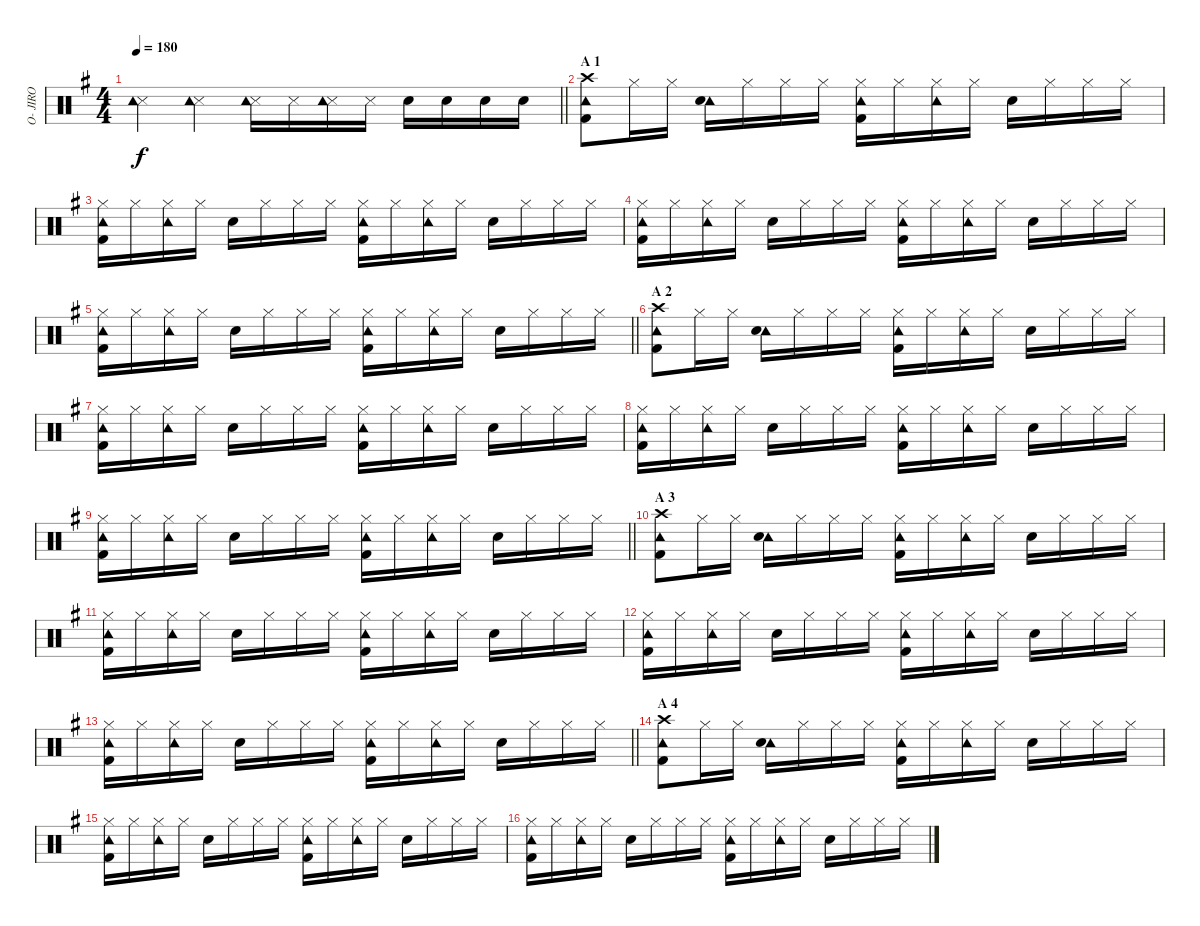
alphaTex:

\track ("O- JIRO" "O- JIRO") {instrument percussion}
\staff {score}
\articulation defaults
\ts (4 4)
\tempo 180
\clef neutral
\barLineRight lightlight
\ks g
("Snare (side stick) 3" "Tambourine (hit)").4{dy f} ("Snare (side stick) 3" "Tambourine (hit)").4 ("Snare (side stick) 3" "Tambourine (hit)").16 "Snare (side stick) 3".16 ("Snare (side stick) 3" "Tambourine (hit)").16 "Snare (side stick) 3".16 "Snare (hit) 2".16 "Snare (hit) 2".16 "Snare (hit) 2".16 "Snare (hit) 2".16 |
\section ("" "A 1")
("Crash high (hit)" "Kick (hit) 2" "Tambourine (hit)").8 "Hi-Hat (closed)".16 "Hi-Hat (closed)".16 ("Tambourine (hit)" "Snare (hit) 2").16 "Hi-Hat (closed)".16 "Hi-Hat (closed)".16 "Hi-Hat (closed)".16 ("Tambourine (hit)" "Kick (hit) 2" "Hi-Hat (closed)").16 "Hi-Hat (closed)".16 ("Hi-Hat (closed)" "Tambourine (hit)").16 "Hi-Hat (closed)".16 "Snare (hit) 2".16 "Hi-Hat (closed)".16 "Hi-Hat (closed)".16 "Hi-Hat (closed)".16 |
("Tambourine (hit)" "Kick (hit) 2" "Hi-Hat (closed)").16 "Hi-Hat (closed)".16 ("Hi-Hat (closed)" "Tambourine (hit)").16 "Hi-Hat (closed)".16 "Snare (hit) 2".16 "Hi-Hat (closed)".16 "Hi-Hat (closed)".16 "Hi-Hat (closed)".16 ("Tambourine (hit)" "Kick (hit) 2" "Hi-Hat (closed)").16 "Hi-Hat (closed)".16 ("Hi-Hat (closed)" "Tambourine (hit)").16 "Hi-Hat (closed)".16 "Snare (hit) 2".16 "Hi-Hat (closed)".16 "Hi-Hat (closed)".16 "Hi-Hat (closed)".16 |
("Tambourine (hit)" "Kick (hit) 2" "Hi-Hat (closed)").16 "Hi-Hat (closed)".16 ("Hi-Hat (closed)" "Tambourine (hit)").16 "Hi-Hat (closed)".16 "Snare (hit) 2".16 "Hi-Hat (closed)".16 "Hi-Hat (closed)".16 "Hi-Hat (closed)".16 ("Tambourine (hit)" "Kick (hit) 2" "Hi-Hat (closed)").16 "Hi-Hat (closed)".16 ("Hi-Hat (closed)" "Tambourine (hit)").16 "Hi-Hat (closed)".16 "Snare (hit) 2".16 "Hi-Hat (closed)".16 "Hi-Hat (closed)".16 "Hi-Hat (closed)".16 |
\barLineRight lightlight
("Tambourine (hit)" "Kick (hit) 2" "Hi-Hat (closed)").16 "Hi-Hat (closed)".16 ("Hi-Hat (closed)" "Tambourine (hit)").16 "Hi-Hat (closed)".16 "Snare (hit) 2".16 "Hi-Hat (closed)".16 "Hi-Hat (closed)".16 "Hi-Hat (closed)".16 ("Tambourine (hit)" "Kick (hit) 2" "Hi-Hat (closed)").16 "Hi-Hat (closed)".16 ("Hi-Hat (closed)" "Tambourine (hit)").16 "Hi-Hat (closed)".16 "Snare (hit) 2".16 "Hi-Hat (closed)".16 "Hi-Hat (closed)".16 "Hi-Hat (closed)".16 |
\section ("" "A 2")
("Crash high (hit)" "Kick (hit) 2" "Tambourine (hit)").8 "Hi-Hat (closed)".16 "Hi-Hat (closed)".16 ("Tambourine (hit)" "Snare (hit) 2").16 "Hi-Hat (closed)".16 "Hi-Hat (closed)".16 "Hi-Hat (closed)".16 ("Tambourine (hit)" "Kick (hit) 2" "Hi-Hat (closed)").16 "Hi-Hat (closed)".16 ("Hi-Hat (closed)" "Tambourine (hit)").16 "Hi-Hat (closed)".16 "Snare (hit) 2".16 "Hi-Hat (closed)".16 "Hi-Hat (closed)".16 "Hi-Hat (closed)".16 |
("Tambourine (hit)" "Kick (hit) 2" "Hi-Hat (closed)").16 "Hi-Hat (closed)".16 ("Hi-Hat (closed)" "Tambourine (hit)").16 "Hi-Hat (closed)".16 "Snare (hit) 2".16 "Hi-Hat (closed)".16 "Hi-Hat (closed)".16 "Hi-Hat (closed)".16 ("Tambourine (hit)" "Kick (hit) 2" "Hi-Hat (closed)").16 "Hi-Hat (closed)".16 ("Hi-Hat (closed)" "Tambourine (hit)").16 "Hi-Hat (closed)".16 "Snare (hit) 2".16 "Hi-Hat (closed)".16 "Hi-Hat (closed)".16 "Hi-Hat (closed)".16 |
("Tambourine (hit)" "Kick (hit) 2" "Hi-Hat (closed)").16 "Hi-Hat (closed)".16 ("Hi-Hat (closed)" "Tambourine (hit)").16 "Hi-Hat (closed)".16 "Snare (hit) 2".16 "Hi-Hat (closed)".16 "Hi-Hat (closed)".16 "Hi-Hat (closed)".16 ("Tambourine (hit)" "Kick (hit) 2" "Hi-Hat (closed)").16 "Hi-Hat (closed)".16 ("Hi-Hat (closed)" "Tambourine (hit)").16 "Hi-Hat (closed)".16 "Snare (hit) 2".16 "Hi-Hat (closed)".16 "Hi-Hat (closed)".16 "Hi-Hat (closed)".16 |
\barLineRight lightlight
("Tambourine (hit)" "Kick (hit) 2" "Hi-Hat (closed)").16 "Hi-Hat (closed)".16 ("Hi-Hat (closed)" "Tambourine (hit)").16 "Hi-Hat (closed)".16 "Snare (hit) 2".16 "Hi-Hat (closed)".16 "Hi-Hat (closed)".16 "Hi-Hat (closed)".16 ("Tambourine (hit)" "Kick (hit) 2" "Hi-Hat (closed)").16 "Hi-Hat (closed)".16 ("Hi-Hat (closed)" "Tambourine (hit)").16 "Hi-Hat (closed)".16 "Snare (hit) 2".16 "Hi-Hat (closed)".16 "Hi-Hat (closed)".16 "Hi-Hat (closed)".16 |
\section ("" "A 3")
("Crash high (hit)" "Kick (hit) 2" "Tambourine (hit)").8 "Hi-Hat (closed)".16 "Hi-Hat (closed)".16 ("Tambourine (hit)" "Snare (hit) 2").16 "Hi-Hat (closed)".16 "Hi-Hat (closed)".16 "Hi-Hat (closed)".16 ("Tambourine (hit)" "Kick (hit) 2" "Hi-Hat (closed)").16 "Hi-Hat (closed)".16 ("Hi-Hat (closed)" "Tambourine (hit)").16 "Hi-Hat (closed)".16 "Snare (hit) 2".16 "Hi-Hat (closed)".16 "Hi-Hat (closed)".16 "Hi-Hat (closed)".16 |
("Tambourine (hit)" "Kick (hit) 2" "Hi-Hat (closed)").16 "Hi-Hat (closed)".16 ("Hi-Hat (closed)" "Tambourine (hit)").16 "Hi-Hat (closed)".16 "Snare (hit) 2".16 "Hi-Hat (closed)".16 "Hi-Hat (closed)".16 "Hi-Hat (closed)".16 ("Tambourine (hit)" "Kick (hit) 2" "Hi-Hat (closed)").16 "Hi-Hat (closed)".16 ("Hi-Hat (closed)" "Tambourine (hit)").16 "Hi-Hat (closed)".16 "Snare (hit) 2".16 "Hi-Hat (closed)".16 "Hi-Hat (closed)".16 "Hi-Hat (closed)".16 |
("Tambourine (hit)" "Kick (hit) 2" "Hi-Hat (closed)").16 "Hi-Hat (closed)".16 ("Hi-Hat (closed)" "Tambourine (hit)").16 "Hi-Hat (closed)".16 "Snare (hit) 2".16 "Hi-Hat (closed)".16 "Hi-Hat (closed)".16 "Hi-Hat (closed)".16 ("Tambourine (hit)" "Kick (hit) 2" "Hi-Hat (closed)").16 "Hi-Hat (closed)".16 ("Hi-Hat (closed)" "Tambourine (hit)").16 "Hi-Hat (closed)".16 "Snare (hit) 2".16 "Hi-Hat (closed)".16 "Hi-Hat (closed)".16 "Hi-Hat (closed)".16 |
\barLineRight lightlight
("Tambourine (hit)" "Kick (hit) 2" "Hi-Hat (closed)").16 "Hi-Hat (closed)".16 ("Hi-Hat (closed)" "Tambourine (hit)").16 "Hi-Hat (closed)".16 "Snare (hit) 2".16 "Hi-Hat (closed)".16 "Hi-Hat (closed)".16 "Hi-Hat (closed)".16 ("Tambourine (hit)" "Kick (hit) 2" "Hi-Hat (closed)").16 "Hi-Hat (closed)".16 ("Hi-Hat (closed)" "Tambourine (hit)").16 "Hi-Hat (closed)".16 "Snare (hit) 2".16 "Hi-Hat (closed)".16 "Hi-Hat (closed)".16 "Hi-Hat (closed)".16 |
\section ("" "A 4")
("Crash high (hit)" "Kick (hit) 2" "Tambourine (hit)").8 "Hi-Hat (closed)".16 "Hi-Hat (closed)".16 ("Tambourine (hit)" "Snare (hit) 2").16 "Hi-Hat (closed)".16 "Hi-Hat (closed)".16 "Hi-Hat (closed)".16 ("Tambourine (hit)" "Kick (hit) 2" "Hi-Hat (closed)").16 "Hi-Hat (closed)".16 ("Hi-Hat (closed)" "Tambourine (hit)").16 "Hi-Hat (closed)".16 "Snare (hit) 2".16 "Hi-Hat (closed)".16 "Hi-Hat (closed)".16 "Hi-Hat (closed)".16 |
("Tambourine (hit)" "Kick (hit) 2" "Hi-Hat (closed)").16 "Hi-Hat (closed)".16 ("Hi-Hat (closed)" "Tambourine (hit)").16 "Hi-Hat (closed)".16 "Snare (hit) 2".16 "Hi-Hat (closed)".16 "Hi-Hat (closed)".16 "Hi-Hat (closed)".16 ("Tambourine (hit)" "Kick (hit) 2" "Hi-Hat (closed)").16 "Hi-Hat (closed)".16 ("Hi-Hat (closed)" "Tambourine (hit)").16 "Hi-Hat (closed)".16 "Snare (hit) 2".16 "Hi-Hat (closed)".16 "Hi-Hat (closed)".16 "Hi-Hat (closed)".16 |
("Tambourine (hit)" "Kick (hit) 2" "Hi-Hat (closed)").16 "Hi-Hat (closed)".16 ("Hi-Hat (closed)" "Tambourine (hit)").16 "Hi-Hat (closed)".16 "Snare (hit) 2".16 "Hi-Hat (closed)".16 "Hi-Hat (closed)".16 "Hi-Hat (closed)".16 ("Tambourine (hit)" "Kick (hit) 2" "Hi-Hat (closed)").16 "Hi-Hat (closed)".16 ("Hi-Hat (closed)" "Tambourine (hit)").16 "Hi-Hat (closed)".16 "Snare (hit) 2".16 "Hi-Hat (closed)".16 "Hi-Hat (closed)".16 "Hi-Hat (closed)".16
